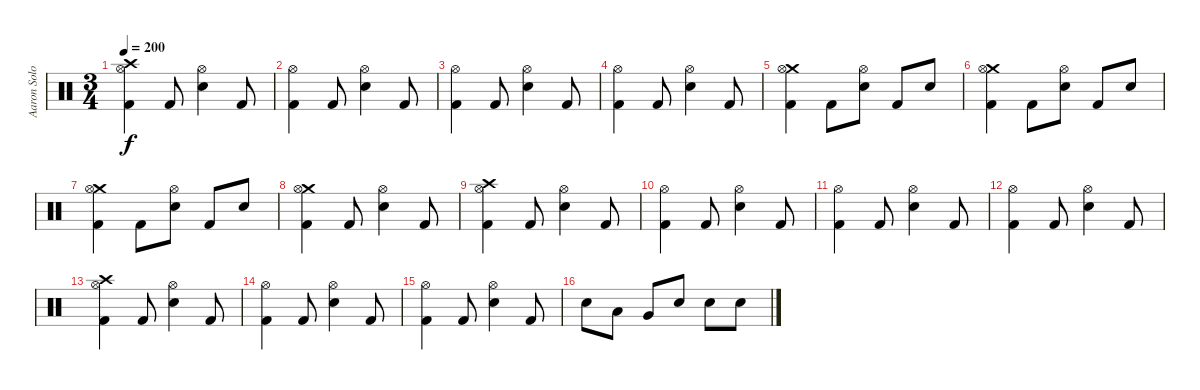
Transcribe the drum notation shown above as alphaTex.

\track ("Aaron Solowoniuk" "Aaron Solo") {instrument percussion}
\staff {score}
\articulation defaults
\ts (3 4)
\tempo 200
\clef neutral
\ks c
("Crash high (hit)" "Hi-Hat (open)" "Kick (hit) 2").4{dy f} "Kick (hit) 2".8 ("Hi-Hat (open)" "Snare (hit) 2").4 "Kick (hit) 2".8 |
("Hi-Hat (open)" "Kick (hit) 2").4 "Kick (hit) 2".8 ("Hi-Hat (open)" "Snare (hit) 2").4 "Kick (hit) 2".8 |
("Hi-Hat (open)" "Kick (hit) 2").4 "Kick (hit) 2".8 ("Hi-Hat (open)" "Snare (hit) 2").4 "Kick (hit) 2".8 |
("Hi-Hat (open)" "Kick (hit) 2").4 "Kick (hit) 2".8 ("Hi-Hat (open)" "Snare (hit) 2").4 "Kick (hit) 2".8 |
("Crash medium (hit)" "Hi-Hat (open)" "Kick (hit) 2").4 "Kick (hit) 2".8 ("Hi-Hat (open)" "Snare (hit) 2").8 "Kick (hit) 2".8 "Snare (hit) 2".8 |
("Crash medium (hit)" "Hi-Hat (open)" "Kick (hit) 2").4 "Kick (hit) 2".8 ("Hi-Hat (open)" "Snare (hit) 2").8 "Kick (hit) 2".8 "Snare (hit) 2".8 |
("Crash medium (hit)" "Hi-Hat (open)" "Kick (hit) 2").4 "Kick (hit) 2".8 ("Hi-Hat (open)" "Snare (hit) 2").8 "Kick (hit) 2".8 "Snare (hit) 2".8 |
("Crash medium (hit)" "Hi-Hat (open)" "Kick (hit) 2").4 "Kick (hit) 2".8 ("Hi-Hat (open)" "Snare (hit) 2").4 "Kick (hit) 2".8 |
("Crash high (hit)" "Hi-Hat (open)" "Kick (hit) 2").4 "Kick (hit) 2".8 ("Hi-Hat (open)" "Snare (hit) 2").4 "Kick (hit) 2".8 |
("Hi-Hat (open)" "Kick (hit) 2").4 "Kick (hit) 2".8 ("Hi-Hat (open)" "Snare (hit) 2").4 "Kick (hit) 2".8 |
("Hi-Hat (open)" "Kick (hit) 2").4 "Kick (hit) 2".8 ("Hi-Hat (open)" "Snare (hit) 2").4 "Kick (hit) 2".8 |
("Hi-Hat (open)" "Kick (hit) 2").4 "Kick (hit) 2".8 ("Hi-Hat (open)" "Snare (hit) 2").4 "Kick (hit) 2".8 |
("Crash high (hit)" "Hi-Hat (open)" "Kick (hit) 2").4 "Kick (hit) 2".8 ("Hi-Hat (open)" "Snare (hit) 2").4 "Kick (hit) 2".8 |
("Hi-Hat (open)" "Kick (hit) 2").4 "Kick (hit) 2".8 ("Hi-Hat (open)" "Snare (hit) 2").4 "Kick (hit) 2".8 |
("Hi-Hat (open)" "Kick (hit) 2").4 "Kick (hit) 2".8 ("Hi-Hat (open)" "Snare (hit) 2").4 "Kick (hit) 2".8 |
"Snare (hit) 2".8 "Low Tom (hit)".8 "Very Low Tom (hit)".8 "Snare (hit) 2".8 "Snare (hit) 2".8 "Snare (hit) 2".8
